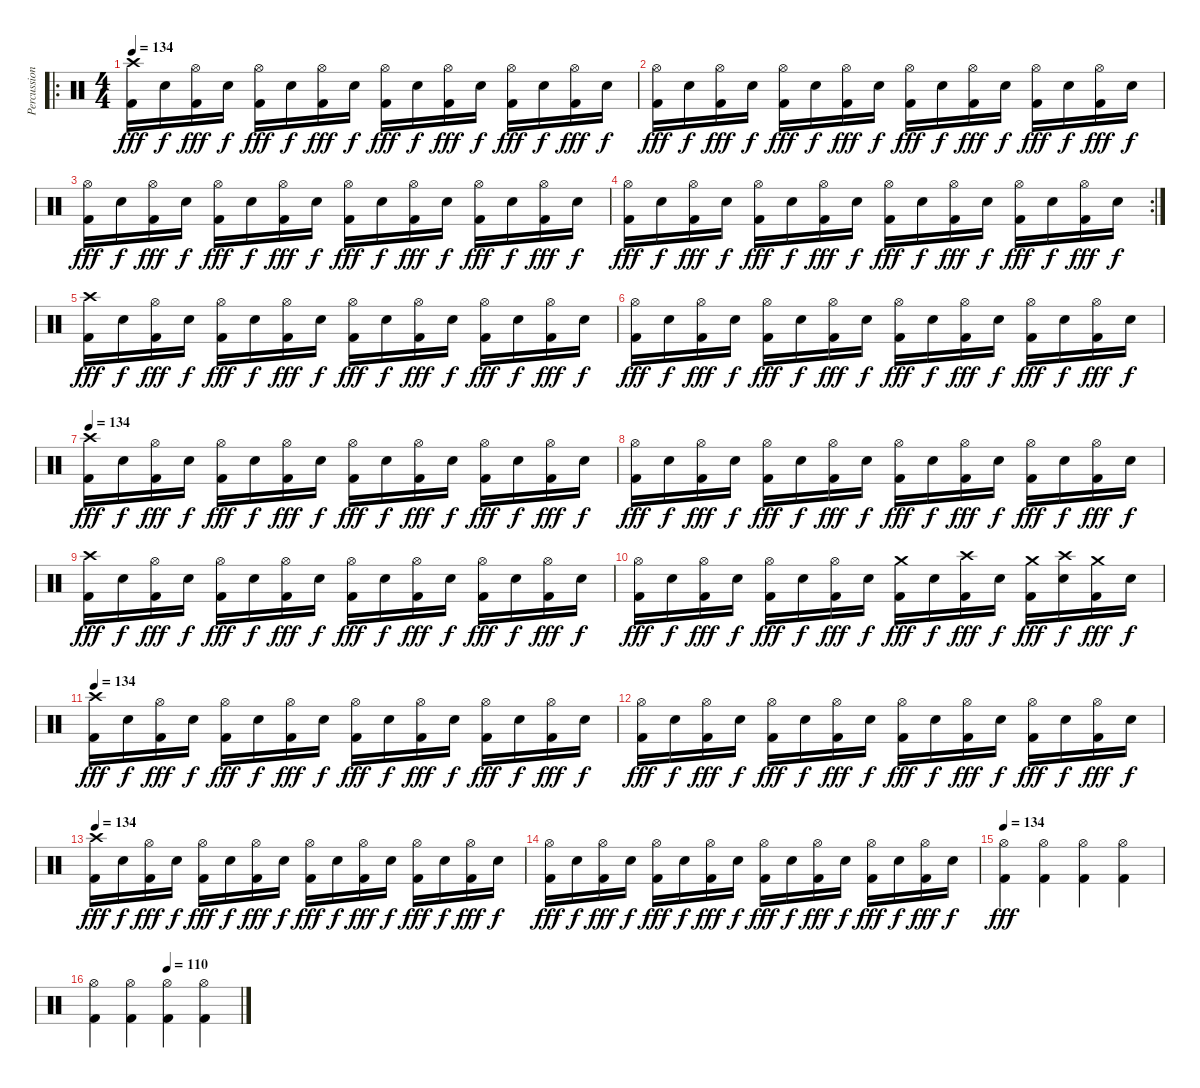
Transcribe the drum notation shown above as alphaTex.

\track ("Percussion" "Percussion") {instrument percussion}
\staff {score}
\articulation defaults
\ro
\ts (4 4)
\tempo 134
\clef neutral
\ks c
("Crash high (hit)" "Kick (hit) 2").16{dy fff} "Electric Snare (hit)".16{dy f} ("Hi-Hat (open)" "Kick (hit) 2").16{dy fff} "Electric Snare (hit)".16{dy f} ("Hi-Hat (open)" "Kick (hit) 2").16{dy fff} "Electric Snare (hit)".16{dy f} ("Hi-Hat (open)" "Kick (hit) 2").16{dy fff} "Electric Snare (hit)".16{dy f} ("Hi-Hat (open)" "Kick (hit) 2").16{dy fff} "Electric Snare (hit)".16{dy f} ("Hi-Hat (open)" "Kick (hit) 2").16{dy fff} "Electric Snare (hit)".16{dy f} ("Hi-Hat (open)" "Kick (hit) 2").16{dy fff} "Electric Snare (hit)".16{dy f} ("Hi-Hat (open)" "Kick (hit) 2").16{dy fff} "Electric Snare (hit)".16{dy f} |
("Hi-Hat (open)" "Kick (hit) 2").16{dy fff} "Electric Snare (hit)".16{dy f} ("Hi-Hat (open)" "Kick (hit) 2").16{dy fff} "Electric Snare (hit)".16{dy f} ("Hi-Hat (open)" "Kick (hit) 2").16{dy fff} "Electric Snare (hit)".16{dy f} ("Hi-Hat (open)" "Kick (hit) 2").16{dy fff} "Electric Snare (hit)".16{dy f} ("Hi-Hat (open)" "Kick (hit) 2").16{dy fff} "Electric Snare (hit)".16{dy f} ("Hi-Hat (open)" "Kick (hit) 2").16{dy fff} "Electric Snare (hit)".16{dy f} ("Hi-Hat (open)" "Kick (hit) 2").16{dy fff} "Electric Snare (hit)".16{dy f} ("Hi-Hat (open)" "Kick (hit) 2").16{dy fff} "Electric Snare (hit)".16{dy f} |
("Hi-Hat (open)" "Kick (hit) 2").16{dy fff} "Electric Snare (hit)".16{dy f} ("Hi-Hat (open)" "Kick (hit) 2").16{dy fff} "Electric Snare (hit)".16{dy f} ("Hi-Hat (open)" "Kick (hit) 2").16{dy fff} "Electric Snare (hit)".16{dy f} ("Hi-Hat (open)" "Kick (hit) 2").16{dy fff} "Electric Snare (hit)".16{dy f} ("Hi-Hat (open)" "Kick (hit) 2").16{dy fff} "Electric Snare (hit)".16{dy f} ("Hi-Hat (open)" "Kick (hit) 2").16{dy fff} "Electric Snare (hit)".16{dy f} ("Hi-Hat (open)" "Kick (hit) 2").16{dy fff} "Electric Snare (hit)".16{dy f} ("Hi-Hat (open)" "Kick (hit) 2").16{dy fff} "Electric Snare (hit)".16{dy f} |
\rc 2
("Hi-Hat (open)" "Kick (hit) 2").16{dy fff} "Electric Snare (hit)".16{dy f} ("Hi-Hat (open)" "Kick (hit) 2").16{dy fff} "Electric Snare (hit)".16{dy f} ("Hi-Hat (open)" "Kick (hit) 2").16{dy fff} "Electric Snare (hit)".16{dy f} ("Hi-Hat (open)" "Kick (hit) 2").16{dy fff} "Electric Snare (hit)".16{dy f} ("Hi-Hat (open)" "Kick (hit) 2").16{dy fff} "Electric Snare (hit)".16{dy f} ("Hi-Hat (open)" "Kick (hit) 2").16{dy fff} "Electric Snare (hit)".16{dy f} ("Hi-Hat (open)" "Kick (hit) 2").16{dy fff} "Electric Snare (hit)".16{dy f} ("Hi-Hat (open)" "Kick (hit) 2").16{dy fff} "Electric Snare (hit)".16{dy f} |
("Crash high (hit)" "Kick (hit) 2").16{dy fff} "Electric Snare (hit)".16{dy f} ("Hi-Hat (open)" "Kick (hit) 2").16{dy fff} "Electric Snare (hit)".16{dy f} ("Hi-Hat (open)" "Kick (hit) 2").16{dy fff} "Electric Snare (hit)".16{dy f} ("Hi-Hat (open)" "Kick (hit) 2").16{dy fff} "Electric Snare (hit)".16{dy f} ("Hi-Hat (open)" "Kick (hit) 2").16{dy fff} "Electric Snare (hit)".16{dy f} ("Hi-Hat (open)" "Kick (hit) 2").16{dy fff} "Electric Snare (hit)".16{dy f} ("Hi-Hat (open)" "Kick (hit) 2").16{dy fff} "Electric Snare (hit)".16{dy f} ("Hi-Hat (open)" "Kick (hit) 2").16{dy fff} "Electric Snare (hit)".16{dy f} |
("Hi-Hat (open)" "Kick (hit) 2").16{dy fff} "Electric Snare (hit)".16{dy f} ("Hi-Hat (open)" "Kick (hit) 2").16{dy fff} "Electric Snare (hit)".16{dy f} ("Hi-Hat (open)" "Kick (hit) 2").16{dy fff} "Electric Snare (hit)".16{dy f} ("Hi-Hat (open)" "Kick (hit) 2").16{dy fff} "Electric Snare (hit)".16{dy f} ("Hi-Hat (open)" "Kick (hit) 2").16{dy fff} "Electric Snare (hit)".16{dy f} ("Hi-Hat (open)" "Kick (hit) 2").16{dy fff} "Electric Snare (hit)".16{dy f} ("Hi-Hat (open)" "Kick (hit) 2").16{dy fff} "Electric Snare (hit)".16{dy f} ("Hi-Hat (open)" "Kick (hit) 2").16{dy fff} "Electric Snare (hit)".16{dy f} |
\tempo 134
("Crash high (hit)" "Kick (hit) 2").16{dy fff} "Electric Snare (hit)".16{dy f} ("Hi-Hat (open)" "Kick (hit) 2").16{dy fff} "Electric Snare (hit)".16{dy f} ("Hi-Hat (open)" "Kick (hit) 2").16{dy fff} "Electric Snare (hit)".16{dy f} ("Hi-Hat (open)" "Kick (hit) 2").16{dy fff} "Electric Snare (hit)".16{dy f} ("Hi-Hat (open)" "Kick (hit) 2").16{dy fff} "Electric Snare (hit)".16{dy f} ("Hi-Hat (open)" "Kick (hit) 2").16{dy fff} "Electric Snare (hit)".16{dy f} ("Hi-Hat (open)" "Kick (hit) 2").16{dy fff} "Electric Snare (hit)".16{dy f} ("Hi-Hat (open)" "Kick (hit) 2").16{dy fff} "Electric Snare (hit)".16{dy f} |
("Hi-Hat (open)" "Kick (hit) 2").16{dy fff} "Electric Snare (hit)".16{dy f} ("Hi-Hat (open)" "Kick (hit) 2").16{dy fff} "Electric Snare (hit)".16{dy f} ("Hi-Hat (open)" "Kick (hit) 2").16{dy fff} "Electric Snare (hit)".16{dy f} ("Hi-Hat (open)" "Kick (hit) 2").16{dy fff} "Electric Snare (hit)".16{dy f} ("Hi-Hat (open)" "Kick (hit) 2").16{dy fff} "Electric Snare (hit)".16{dy f} ("Hi-Hat (open)" "Kick (hit) 2").16{dy fff} "Electric Snare (hit)".16{dy f} ("Hi-Hat (open)" "Kick (hit) 2").16{dy fff} "Electric Snare (hit)".16{dy f} ("Hi-Hat (open)" "Kick (hit) 2").16{dy fff} "Electric Snare (hit)".16{dy f} |
("Crash high (hit)" "Kick (hit) 2").16{dy fff} "Electric Snare (hit)".16{dy f} ("Hi-Hat (open)" "Kick (hit) 2").16{dy fff} "Electric Snare (hit)".16{dy f} ("Hi-Hat (open)" "Kick (hit) 2").16{dy fff} "Electric Snare (hit)".16{dy f} ("Hi-Hat (open)" "Kick (hit) 2").16{dy fff} "Electric Snare (hit)".16{dy f} ("Hi-Hat (open)" "Kick (hit) 2").16{dy fff} "Electric Snare (hit)".16{dy f} ("Hi-Hat (open)" "Kick (hit) 2").16{dy fff} "Electric Snare (hit)".16{dy f} ("Hi-Hat (open)" "Kick (hit) 2").16{dy fff} "Electric Snare (hit)".16{dy f} ("Hi-Hat (open)" "Kick (hit) 2").16{dy fff} "Electric Snare (hit)".16{dy f} |
("Hi-Hat (open)" "Kick (hit) 2").16{dy fff} "Electric Snare (hit)".16{dy f} ("Hi-Hat (open)" "Kick (hit) 2").16{dy fff} "Electric Snare (hit)".16{dy f} ("Hi-Hat (open)" "Kick (hit) 2").16{dy fff} "Electric Snare (hit)".16{dy f} ("Hi-Hat (open)" "Kick (hit) 2").16{dy fff} "Electric Snare (hit)".16{dy f} ("Crash medium (hit)" "Kick (hit) 2").16{dy fff} "Electric Snare (hit)".16{dy f} ("Crash high (hit)" "Kick (hit) 2").16{dy fff} "Electric Snare (hit)".16{dy f} ("Crash medium (hit)" "Kick (hit) 2").16{dy fff} ("Crash high (hit)" "Electric Snare (hit)").16{dy f} ("Crash medium (hit)" "Kick (hit) 2").16{dy fff} "Electric Snare (hit)".16{dy f} |
\tempo 134
("Crash high (hit)" "Kick (hit) 2").16{dy fff} "Electric Snare (hit)".16{dy f} ("Hi-Hat (open)" "Kick (hit) 2").16{dy fff} "Electric Snare (hit)".16{dy f} ("Hi-Hat (open)" "Kick (hit) 2").16{dy fff} "Electric Snare (hit)".16{dy f} ("Hi-Hat (open)" "Kick (hit) 2").16{dy fff} "Electric Snare (hit)".16{dy f} ("Hi-Hat (open)" "Kick (hit) 2").16{dy fff} "Electric Snare (hit)".16{dy f} ("Hi-Hat (open)" "Kick (hit) 2").16{dy fff} "Electric Snare (hit)".16{dy f} ("Hi-Hat (open)" "Kick (hit) 2").16{dy fff} "Electric Snare (hit)".16{dy f} ("Hi-Hat (open)" "Kick (hit) 2").16{dy fff} "Electric Snare (hit)".16{dy f} |
("Hi-Hat (open)" "Kick (hit) 2").16{dy fff} "Electric Snare (hit)".16{dy f} ("Hi-Hat (open)" "Kick (hit) 2").16{dy fff} "Electric Snare (hit)".16{dy f} ("Hi-Hat (open)" "Kick (hit) 2").16{dy fff} "Electric Snare (hit)".16{dy f} ("Hi-Hat (open)" "Kick (hit) 2").16{dy fff} "Electric Snare (hit)".16{dy f} ("Hi-Hat (open)" "Kick (hit) 2").16{dy fff} "Electric Snare (hit)".16{dy f} ("Hi-Hat (open)" "Kick (hit) 2").16{dy fff} "Electric Snare (hit)".16{dy f} ("Hi-Hat (open)" "Kick (hit) 2").16{dy fff} "Electric Snare (hit)".16{dy f} ("Hi-Hat (open)" "Kick (hit) 2").16{dy fff} "Electric Snare (hit)".16{dy f} |
\tempo 134
("Crash high (hit)" "Kick (hit) 2").16{dy fff} "Electric Snare (hit)".16{dy f} ("Hi-Hat (open)" "Kick (hit) 2").16{dy fff} "Electric Snare (hit)".16{dy f} ("Hi-Hat (open)" "Kick (hit) 2").16{dy fff} "Electric Snare (hit)".16{dy f} ("Hi-Hat (open)" "Kick (hit) 2").16{dy fff} "Electric Snare (hit)".16{dy f} ("Hi-Hat (open)" "Kick (hit) 2").16{dy fff} "Electric Snare (hit)".16{dy f} ("Hi-Hat (open)" "Kick (hit) 2").16{dy fff} "Electric Snare (hit)".16{dy f} ("Hi-Hat (open)" "Kick (hit) 2").16{dy fff} "Electric Snare (hit)".16{dy f} ("Hi-Hat (open)" "Kick (hit) 2").16{dy fff} "Electric Snare (hit)".16{dy f} |
("Hi-Hat (open)" "Kick (hit) 2").16{dy fff} "Electric Snare (hit)".16{dy f} ("Hi-Hat (open)" "Kick (hit) 2").16{dy fff} "Electric Snare (hit)".16{dy f} ("Hi-Hat (open)" "Kick (hit) 2").16{dy fff} "Electric Snare (hit)".16{dy f} ("Hi-Hat (open)" "Kick (hit) 2").16{dy fff} "Electric Snare (hit)".16{dy f} ("Hi-Hat (open)" "Kick (hit) 2").16{dy fff} "Electric Snare (hit)".16{dy f} ("Hi-Hat (open)" "Kick (hit) 2").16{dy fff} "Electric Snare (hit)".16{dy f} ("Hi-Hat (open)" "Kick (hit) 2").16{dy fff} "Electric Snare (hit)".16{dy f} ("Hi-Hat (open)" "Kick (hit) 2").16{dy fff} "Electric Snare (hit)".16{dy f} |
\tempo 134
("Hi-Hat (open)" "Kick (hit) 2").4{dy fff} ("Hi-Hat (open)" "Kick (hit) 2").4 ("Hi-Hat (open)" "Kick (hit) 2").4 ("Hi-Hat (open)" "Kick (hit) 2").4 |
\tempo (110 0.5)
("Hi-Hat (open)" "Kick (hit) 2").4 ("Hi-Hat (open)" "Kick (hit) 2").4 ("Hi-Hat (open)" "Kick (hit) 2").4 ("Hi-Hat (open)" "Kick (hit) 2").4
